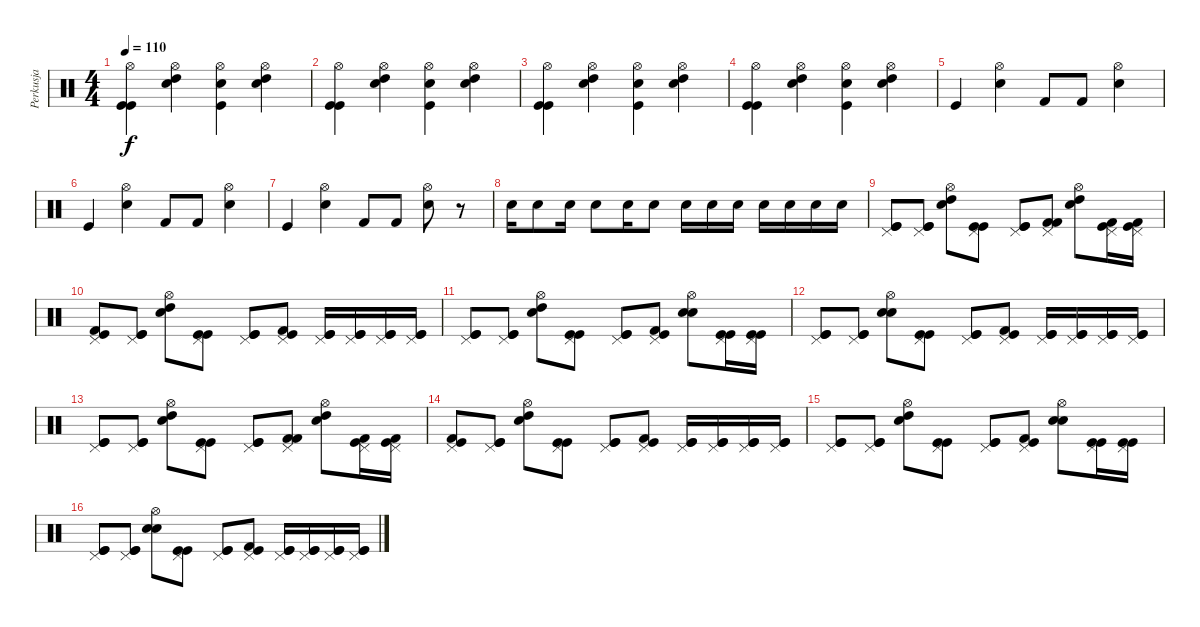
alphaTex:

\track ("Perkusja" "Perkusja") {instrument percussion}
\staff {score}
\articulation defaults
\ts (4 4)
\tempo 110
\clef neutral
\ks c
("Hi-Hat (open)" "Kick (hit)" "Kick (hit)").4{dy f} ("Hi-Hat (open)" "Snare (hit) 2" "High Tom (hit)").4 ("Hi-Hat (open)" "Snare (hit) 2" "Kick (hit)").4 ("Hi-Hat (open)" "Snare (hit) 2" "High Tom (hit)").4 |
("Hi-Hat (open)" "Kick (hit)" "Kick (hit)").4 ("Hi-Hat (open)" "Snare (hit) 2" "High Tom (hit)").4 ("Hi-Hat (open)" "Snare (hit) 2" "Kick (hit)").4 ("Hi-Hat (open)" "Snare (hit) 2" "High Tom (hit)").4 |
("Hi-Hat (open)" "Kick (hit)" "Kick (hit)").4 ("Hi-Hat (open)" "Snare (hit) 2" "High Tom (hit)").4 ("Hi-Hat (open)" "Snare (hit) 2" "Kick (hit)").4 ("Hi-Hat (open)" "Snare (hit) 2" "High Tom (hit)").4 |
("Hi-Hat (open)" "Kick (hit)" "Kick (hit)").4 ("Hi-Hat (open)" "Snare (hit) 2" "High Tom (hit)").4 ("Hi-Hat (open)" "Snare (hit) 2" "Kick (hit)").4 ("Hi-Hat (open)" "Snare (hit) 2" "High Tom (hit)").4 |
"Kick (hit)".4 ("Hi-Hat (open)" "Snare (hit) 2").4 "Kick (hit) 2".8 "Kick (hit) 2".8 ("Hi-Hat (open)" "Snare (hit) 2").4 |
"Kick (hit)".4 ("Hi-Hat (open)" "Snare (hit) 2").4 "Kick (hit) 2".8 "Kick (hit) 2".8 ("Hi-Hat (open)" "Snare (hit) 2").4 |
"Kick (hit)".4 ("Hi-Hat (open)" "Snare (hit) 2").4 "Kick (hit) 2".8 "Kick (hit) 2".8 ("Hi-Hat (open)" "Snare (hit) 2").8 r.8 |
"Snare (hit) 2".16 "Snare (hit) 2".8 "Snare (hit) 2".16 "Snare (hit) 2".8 "Snare (hit) 2".16 "Snare (hit) 2".8 "Snare (hit) 2".16 "Snare (hit) 2".16 "Snare (hit) 2".16 "Snare (hit) 2".16 "Snare (hit) 2".16 "Snare (hit) 2".16 "Snare (hit) 2".16 |
("Pedal Hi-Hat (hit)" "Kick (hit)" "Kick (hit)").8 ("Pedal Hi-Hat (hit)" "Kick (hit)" "Kick (hit)").8 ("Hi-Hat (open)" "Snare (hit) 2" "High Tom (hit)").8 ("Pedal Hi-Hat (hit)" "Kick (hit)" "Kick (hit)").8 ("Pedal Hi-Hat (hit)" "Kick (hit)" "Kick (hit)").8 ("Pedal Hi-Hat (hit)" "Kick (hit) 2" "Kick (hit) 2").8 ("Hi-Hat (open)" "Snare (hit) 2" "High Tom (hit)").8 ("Pedal Hi-Hat (hit)" "Kick (hit)" "Kick (hit) 2").16 ("Pedal Hi-Hat (hit)" "Kick (hit)" "Kick (hit) 2").16 |
("Pedal Hi-Hat (hit)" "Kick (hit)" "Kick (hit) 2").8 ("Pedal Hi-Hat (hit)" "Kick (hit)" "Kick (hit)").8 ("Hi-Hat (open)" "Snare (hit) 2" "High Tom (hit)").8 ("Pedal Hi-Hat (hit)" "Kick (hit)" "Kick (hit)").8 ("Pedal Hi-Hat (hit)" "Kick (hit)" "Kick (hit)").8 ("Pedal Hi-Hat (hit)" "Kick (hit) 2" "Kick (hit)").8 ("Pedal Hi-Hat (hit)" "Kick (hit)" "Kick (hit)").16 ("Pedal Hi-Hat (hit)" "Kick (hit)" "Kick (hit)").16 ("Pedal Hi-Hat (hit)" "Kick (hit)" "Kick (hit)").16 ("Pedal Hi-Hat (hit)" "Kick (hit)" "Kick (hit)").16 |
("Pedal Hi-Hat (hit)" "Kick (hit)" "Kick (hit)").8 ("Pedal Hi-Hat (hit)" "Kick (hit)" "Kick (hit)").8 ("Hi-Hat (open)" "Snare (hit) 2" "High Tom (hit)").8 ("Pedal Hi-Hat (hit)" "Kick (hit)" "Kick (hit)").8 ("Pedal Hi-Hat (hit)" "Kick (hit)" "Kick (hit)").8 ("Pedal Hi-Hat (hit)" "Kick (hit) 2" "Kick (hit)").8 ("Hi-Hat (open)" "Snare (hit) 2" "Snare (hit) 2").8 ("Pedal Hi-Hat (hit)" "Kick (hit)" "Kick (hit)").16 ("Pedal Hi-Hat (hit)" "Kick (hit)" "Kick (hit)").16 |
("Pedal Hi-Hat (hit)" "Kick (hit)" "Kick (hit)").8 ("Pedal Hi-Hat (hit)" "Kick (hit)" "Kick (hit)").8 ("Hi-Hat (open)" "Snare (hit) 2" "Snare (hit) 2").8 ("Pedal Hi-Hat (hit)" "Kick (hit)" "Kick (hit)").8 ("Pedal Hi-Hat (hit)" "Kick (hit)" "Kick (hit)").8 ("Pedal Hi-Hat (hit)" "Kick (hit) 2" "Kick (hit)").8 ("Pedal Hi-Hat (hit)" "Kick (hit)" "Kick (hit)").16 ("Pedal Hi-Hat (hit)" "Kick (hit)" "Kick (hit)").16 ("Pedal Hi-Hat (hit)" "Kick (hit)" "Kick (hit)").16 ("Pedal Hi-Hat (hit)" "Kick (hit)" "Kick (hit)").16 |
("Pedal Hi-Hat (hit)" "Kick (hit)" "Kick (hit)").8 ("Pedal Hi-Hat (hit)" "Kick (hit)" "Kick (hit)").8 ("Hi-Hat (open)" "Snare (hit) 2" "High Tom (hit)").8 ("Pedal Hi-Hat (hit)" "Kick (hit)" "Kick (hit)").8 ("Pedal Hi-Hat (hit)" "Kick (hit)" "Kick (hit)").8 ("Pedal Hi-Hat (hit)" "Kick (hit) 2" "Kick (hit) 2").8 ("Hi-Hat (open)" "Snare (hit) 2" "High Tom (hit)").8 ("Pedal Hi-Hat (hit)" "Kick (hit)" "Kick (hit) 2").16 ("Pedal Hi-Hat (hit)" "Kick (hit)" "Kick (hit) 2").16 |
("Pedal Hi-Hat (hit)" "Kick (hit)" "Kick (hit) 2").8 ("Pedal Hi-Hat (hit)" "Kick (hit)" "Kick (hit)").8 ("Hi-Hat (open)" "Snare (hit) 2" "High Tom (hit)").8 ("Pedal Hi-Hat (hit)" "Kick (hit)" "Kick (hit)").8 ("Pedal Hi-Hat (hit)" "Kick (hit)" "Kick (hit)").8 ("Pedal Hi-Hat (hit)" "Kick (hit) 2" "Kick (hit)").8 ("Pedal Hi-Hat (hit)" "Kick (hit)" "Kick (hit)").16 ("Pedal Hi-Hat (hit)" "Kick (hit)" "Kick (hit)").16 ("Pedal Hi-Hat (hit)" "Kick (hit)" "Kick (hit)").16 ("Pedal Hi-Hat (hit)" "Kick (hit)" "Kick (hit)").16 |
("Pedal Hi-Hat (hit)" "Kick (hit)" "Kick (hit)").8 ("Pedal Hi-Hat (hit)" "Kick (hit)" "Kick (hit)").8 ("Hi-Hat (open)" "Snare (hit) 2" "High Tom (hit)").8 ("Pedal Hi-Hat (hit)" "Kick (hit)" "Kick (hit)").8 ("Pedal Hi-Hat (hit)" "Kick (hit)" "Kick (hit)").8 ("Pedal Hi-Hat (hit)" "Kick (hit) 2" "Kick (hit)").8 ("Hi-Hat (open)" "Snare (hit) 2" "Snare (hit) 2").8 ("Pedal Hi-Hat (hit)" "Kick (hit)" "Kick (hit)").16 ("Pedal Hi-Hat (hit)" "Kick (hit)" "Kick (hit)").16 |
("Pedal Hi-Hat (hit)" "Kick (hit)" "Kick (hit)").8 ("Pedal Hi-Hat (hit)" "Kick (hit)" "Kick (hit)").8 ("Hi-Hat (open)" "Snare (hit) 2" "Snare (hit) 2").8 ("Pedal Hi-Hat (hit)" "Kick (hit)" "Kick (hit)").8 ("Pedal Hi-Hat (hit)" "Kick (hit)" "Kick (hit)").8 ("Pedal Hi-Hat (hit)" "Kick (hit) 2" "Kick (hit)").8 ("Pedal Hi-Hat (hit)" "Kick (hit)" "Kick (hit)").16 ("Pedal Hi-Hat (hit)" "Kick (hit)" "Kick (hit)").16 ("Pedal Hi-Hat (hit)" "Kick (hit)" "Kick (hit)").16 ("Pedal Hi-Hat (hit)" "Kick (hit)" "Kick (hit)").16
